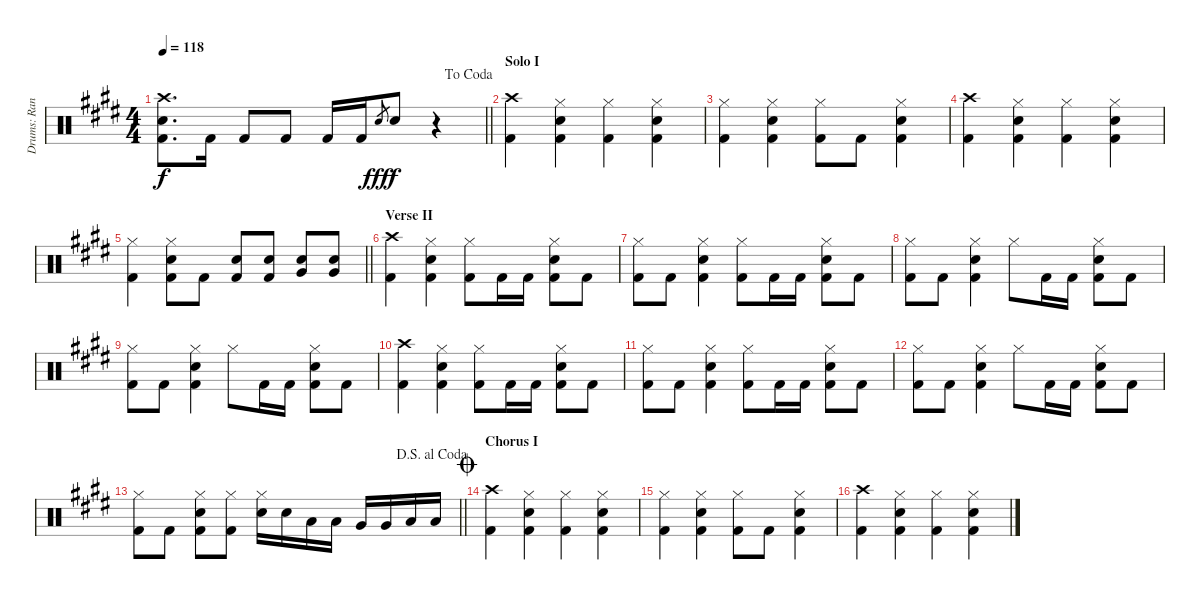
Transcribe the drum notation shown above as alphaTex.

\track ("Drums: Randy" "Drums: Ran") {instrument percussion}
\staff {score}
\articulation defaults
\ts (4 4)
\jump dacoda
\tempo 118
\clef neutral
\barLineRight lightlight
\ks e
("Crash high (hit)" "Snare (hit) 2" "Kick (hit) 2").8{d dy f} "Kick (hit) 2".16 "Kick (hit) 2".8 "Kick (hit) 2".8 "Kick (hit) 2".16 "Kick (hit) 2".16 "Snare (hit) 2".8{gr dy fff} "Snare (hit) 2".8{dy f} r.4 |
\section ("" "Solo I")
("Crash high (hit)" "Kick (hit) 2").4 ("Hi-Hat (closed)" "Snare (hit) 2" "Kick (hit) 2").4 ("Hi-Hat (closed)" "Kick (hit) 2").4 ("Hi-Hat (closed)" "Snare (hit) 2" "Kick (hit) 2").4 |
("Hi-Hat (closed)" "Kick (hit) 2").4 ("Hi-Hat (closed)" "Snare (hit) 2" "Kick (hit) 2").4 ("Hi-Hat (closed)" "Kick (hit) 2").8 "Kick (hit) 2".8 ("Hi-Hat (closed)" "Snare (hit) 2" "Kick (hit) 2").4 |
("Crash high (hit)" "Kick (hit) 2").4 ("Hi-Hat (closed)" "Snare (hit) 2" "Kick (hit) 2").4 ("Hi-Hat (closed)" "Kick (hit) 2").4 ("Hi-Hat (closed)" "Snare (hit) 2" "Kick (hit) 2").4 |
\barLineRight lightlight
("Hi-Hat (closed)" "Kick (hit) 2").4 ("Hi-Hat (closed)" "Snare (hit) 2" "Kick (hit) 2").8 "Kick (hit) 2".8 ("Snare (hit) 2" "Kick (hit) 2").8 ("Snare (hit) 2" "Kick (hit) 2").8 ("Snare (hit) 2" "Very Low Tom (hit)").8 ("Snare (hit) 2" "Very Low Tom (hit)").8 |
\section ("" "Verse II")
("Crash high (hit)" "Kick (hit) 2").4 ("Hi-Hat (closed)" "Snare (hit) 2" "Kick (hit) 2").4 ("Hi-Hat (closed)" "Kick (hit) 2").8 "Kick (hit) 2".16 "Kick (hit) 2".16 ("Hi-Hat (closed)" "Snare (hit) 2" "Kick (hit) 2").8 "Kick (hit) 2".8 |
("Hi-Hat (closed)" "Kick (hit) 2").8 "Kick (hit) 2".8 ("Hi-Hat (closed)" "Snare (hit) 2" "Kick (hit) 2").4 ("Hi-Hat (closed)" "Kick (hit) 2").8 "Kick (hit) 2".16 "Kick (hit) 2".16 ("Hi-Hat (closed)" "Snare (hit) 2" "Kick (hit) 2").8 "Kick (hit) 2".8 |
("Hi-Hat (closed)" "Kick (hit) 2").8 "Kick (hit) 2".8 ("Hi-Hat (closed)" "Snare (hit) 2" "Kick (hit) 2").4 "Hi-Hat (closed)".8 "Kick (hit) 2".16 "Kick (hit) 2".16 ("Hi-Hat (closed)" "Snare (hit) 2" "Kick (hit) 2").8 "Kick (hit) 2".8 |
("Hi-Hat (closed)" "Kick (hit) 2").8 "Kick (hit) 2".8 ("Hi-Hat (closed)" "Snare (hit) 2" "Kick (hit) 2").4 "Hi-Hat (closed)".8 "Kick (hit) 2".16 "Kick (hit) 2".16 ("Hi-Hat (closed)" "Snare (hit) 2" "Kick (hit) 2").8 "Kick (hit) 2".8 |
("Crash high (hit)" "Kick (hit) 2").4 ("Hi-Hat (closed)" "Snare (hit) 2" "Kick (hit) 2").4 ("Hi-Hat (closed)" "Kick (hit) 2").8 "Kick (hit) 2".16 "Kick (hit) 2".16 ("Hi-Hat (closed)" "Snare (hit) 2" "Kick (hit) 2").8 "Kick (hit) 2".8 |
("Hi-Hat (closed)" "Kick (hit) 2").8 "Kick (hit) 2".8 ("Hi-Hat (closed)" "Snare (hit) 2" "Kick (hit) 2").4 ("Hi-Hat (closed)" "Kick (hit) 2").8 "Kick (hit) 2".16 "Kick (hit) 2".16 ("Hi-Hat (closed)" "Snare (hit) 2" "Kick (hit) 2").8 "Kick (hit) 2".8 |
("Hi-Hat (closed)" "Kick (hit) 2").8 "Kick (hit) 2".8 ("Hi-Hat (closed)" "Snare (hit) 2" "Kick (hit) 2").4 "Hi-Hat (closed)".8 "Kick (hit) 2".16 "Kick (hit) 2".16 ("Hi-Hat (closed)" "Snare (hit) 2" "Kick (hit) 2").8 "Kick (hit) 2".8 |
\jump dalsegnoalcoda
\barLineRight lightlight
("Hi-Hat (closed)" "Kick (hit) 2").8 "Kick (hit) 2".8 ("Hi-Hat (closed)" "Snare (hit) 2" "Kick (hit) 2").8 ("Hi-Hat (closed)" "Kick (hit) 2").8 ("Hi-Hat (closed)" "Snare (hit) 2").16 "Snare (hit) 2".16 "Low Tom (hit)".16 "Low Tom (hit)".16 "Very Low Tom (hit)".16 "Very Low Tom (hit)".16 "Low Tom (hit)".16 "Low Tom (hit)".16 |
\section ("" "Chorus I")
\jump coda
("Crash high (hit)" "Kick (hit) 2").4 ("Hi-Hat (closed)" "Snare (hit) 2" "Kick (hit) 2").4 ("Hi-Hat (closed)" "Kick (hit) 2").4 ("Hi-Hat (closed)" "Snare (hit) 2" "Kick (hit) 2").4 |
("Hi-Hat (closed)" "Kick (hit) 2").4 ("Hi-Hat (closed)" "Snare (hit) 2" "Kick (hit) 2").4 ("Hi-Hat (closed)" "Kick (hit) 2").8 "Kick (hit) 2".8 ("Hi-Hat (closed)" "Snare (hit) 2" "Kick (hit) 2").4 |
("Crash high (hit)" "Kick (hit) 2").4 ("Hi-Hat (closed)" "Snare (hit) 2" "Kick (hit) 2").4 ("Hi-Hat (closed)" "Kick (hit) 2").4 ("Hi-Hat (closed)" "Snare (hit) 2" "Kick (hit) 2").4
